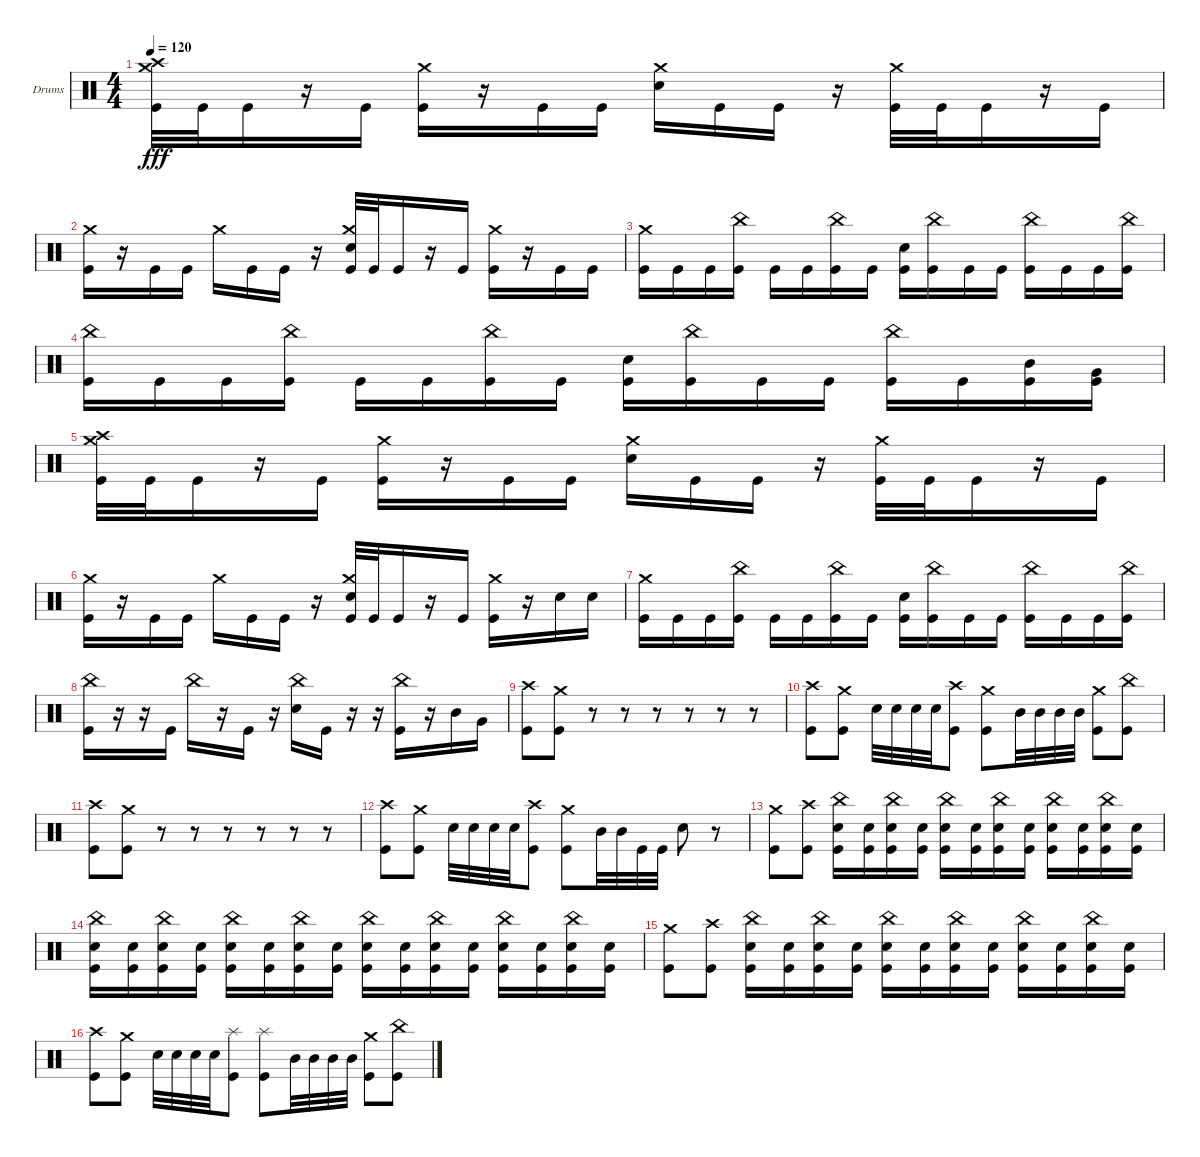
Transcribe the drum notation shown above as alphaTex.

\bracketExtendMode groupsimilarinstruments
\firstSystemTrackNameOrientation horizontal
\otherSystemsTrackNameOrientation horizontal
\track ("Drumkit" "Drums") {instrument percussion}
\staff {score}
\articulation defaults
\ts (4 4)
\tempo 120
\clef neutral
\ks c
("Kick (hit)" "Crash high (hit)" "Crash medium (hit)").32{dy fff} "Kick (hit)".32 "Kick (hit)".16 r.16 "Kick (hit)".16 ("Kick (hit)" "Crash medium (hit)").16 r.16 "Kick (hit)".16 "Kick (hit)".16 ("Snare (hit) 2" "Crash medium (hit)").16 "Kick (hit)".16 "Kick (hit)".16 r.16 ("Kick (hit)" "Crash medium (hit)").32 "Kick (hit)".32 "Kick (hit)".16 r.16 "Kick (hit)".16 |
("Kick (hit)" "Crash medium (hit)").16 r.16 "Kick (hit)".16 "Kick (hit)".16 "Crash medium (hit)".16 "Kick (hit)".16 "Kick (hit)".16 r.16 ("Snare (hit) 2" "Kick (hit)" "Crash medium (hit)").32 "Kick (hit)".32 "Kick (hit)".16 r.16 "Kick (hit)".16 ("Kick (hit)" "Crash medium (hit)").16 r.16 "Kick (hit)".16 "Kick (hit)".16 |
("Kick (hit)" "Crash medium (hit)").16 "Kick (hit)".16 "Kick (hit)".16 ("Kick (hit)" "China (hit)").16 "Kick (hit)".16 "Kick (hit)".16 ("Kick (hit)" "China (hit)").16 "Kick (hit)".16 ("Snare (hit) 2" "Kick (hit)").16 ("Kick (hit)" "China (hit)").16 "Kick (hit)".16 "Kick (hit)".16 ("Kick (hit)" "China (hit)").16 "Kick (hit)".16 "Kick (hit)".16 ("China (hit)" "Kick (hit)").16 |
("Kick (hit)" "China (hit)").16 "Kick (hit)".16 "Kick (hit)".16 ("Kick (hit)" "China (hit)").16 "Kick (hit)".16 "Kick (hit)".16 ("Kick (hit)" "China (hit)").16 "Kick (hit)".16 ("Snare (hit) 2" "Kick (hit)").16 ("Kick (hit)" "China (hit)").16 "Kick (hit)".16 "Kick (hit)".16 ("Kick (hit)" "China (hit)").16 "Kick (hit)".16 ("Mid Tom (hit)" "Kick (hit)").16 ("Very Low Tom (hit)" "Kick (hit)").16 |
("Kick (hit)" "Crash high (hit)" "Crash medium (hit)").32 "Kick (hit)".32 "Kick (hit)".16 r.16 "Kick (hit)".16 ("Kick (hit)" "Crash medium (hit)").16 r.16 "Kick (hit)".16 "Kick (hit)".16 ("Snare (hit) 2" "Crash medium (hit)").16 "Kick (hit)".16 "Kick (hit)".16 r.16 ("Kick (hit)" "Crash medium (hit)").32 "Kick (hit)".32 "Kick (hit)".16 r.16 "Kick (hit)".16 |
("Kick (hit)" "Crash medium (hit)").16 r.16 "Kick (hit)".16 "Kick (hit)".16 "Crash medium (hit)".16 "Kick (hit)".16 "Kick (hit)".16 r.16 ("Snare (hit) 2" "Kick (hit)" "Crash medium (hit)").32 "Kick (hit)".32 "Kick (hit)".16 r.16 "Kick (hit)".16 ("Kick (hit)" "Crash medium (hit)").16 r.16 "Snare (hit) 2".16 "Snare (hit) 2".16 |
("Kick (hit)" "Crash medium (hit)").16 "Kick (hit)".16 "Kick (hit)".16 ("Kick (hit)" "China (hit)").16 "Kick (hit)".16 "Kick (hit)".16 ("Kick (hit)" "China (hit)").16 "Kick (hit)".16 ("Snare (hit) 2" "Kick (hit)").16 ("Kick (hit)" "China (hit)").16 "Kick (hit)".16 "Kick (hit)".16 ("Kick (hit)" "China (hit)").16 "Kick (hit)".16 "Kick (hit)".16 ("China (hit)" "Kick (hit)").16 |
("Kick (hit)" "China (hit)").16 r.16 r.16 "Kick (hit)".16 "China (hit)".16 r.16 "Kick (hit)".16 r.16 ("Snare (hit) 2" "China (hit)").16 "Kick (hit)".16 r.16 r.16 ("Kick (hit)" "China (hit)").16 r.16 "Mid Tom (hit)".16 "Very Low Tom (hit)".16 |
("Kick (hit)" "Crash high (hit)").8 ("Kick (hit)" "Crash medium (hit)").8 r.8 r.8 r.8 r.8 r.8 r.8 |
("Kick (hit)" "Crash high (hit)").8 ("Kick (hit)" "Crash medium (hit)").8 "Snare (hit) 2".32 "Snare (hit) 2".32 "Snare (hit) 2".32 "Snare (hit) 2".32 ("Kick (hit)" "Crash high (hit)").8 ("Kick (hit)" "Crash medium (hit)").8 "Mid Tom (hit)".32 "Mid Tom (hit)".32 "Mid Tom (hit)".32 "Mid Tom (hit)".32 ("Kick (hit)" "Crash medium (hit)").8 ("Kick (hit)" "China (hit)").8 |
("Kick (hit)" "Crash high (hit)").8 ("Kick (hit)" "Crash medium (hit)").8 r.8 r.8 r.8 r.8 r.8 r.8 |
("Kick (hit)" "Crash high (hit)").8 ("Kick (hit)" "Crash medium (hit)").8 "Snare (hit) 2".32 "Snare (hit) 2".32 "Snare (hit) 2".32 "Snare (hit) 2".32 ("Kick (hit)" "Crash high (hit)").8 ("Kick (hit)" "Crash medium (hit)").8 "Mid Tom (hit)".32 "Mid Tom (hit)".32 "Kick (hit)".32 "Kick (hit)".32 "Snare (hit) 2".8 r.8 |
("Kick (hit)" "Crash medium (hit)").8 ("Crash high (hit)" "Kick (hit)").8 ("Snare (hit) 2" "China (hit)" "Kick (hit)").16 ("Snare (hit) 2" "Kick (hit)").16 ("Snare (hit) 2" "China (hit)" "Kick (hit)").16 ("Snare (hit) 2" "Kick (hit)").16 ("Snare (hit) 2" "China (hit)" "Kick (hit)").16 ("Snare (hit) 2" "Kick (hit)").16 ("Snare (hit) 2" "China (hit)" "Kick (hit)").16 ("Snare (hit) 2" "Kick (hit)").16 ("Snare (hit) 2" "China (hit)" "Kick (hit)").16 ("Snare (hit) 2" "Kick (hit)").16 ("Snare (hit) 2" "China (hit)" "Kick (hit)").16 ("Snare (hit) 2" "Kick (hit)").16 |
("Snare (hit) 2" "China (hit)" "Kick (hit)").16 ("Snare (hit) 2" "Kick (hit)").16 ("Snare (hit) 2" "China (hit)" "Kick (hit)").16 ("Snare (hit) 2" "Kick (hit)").16 ("Snare (hit) 2" "China (hit)" "Kick (hit)").16 ("Snare (hit) 2" "Kick (hit)").16 ("Snare (hit) 2" "China (hit)" "Kick (hit)").16 ("Snare (hit) 2" "Kick (hit)").16 ("Snare (hit) 2" "China (hit)" "Kick (hit)").16 ("Snare (hit) 2" "Kick (hit)").16 ("Snare (hit) 2" "China (hit)" "Kick (hit)").16 ("Snare (hit) 2" "Kick (hit)").16 ("Snare (hit) 2" "China (hit)" "Kick (hit)").16 ("Snare (hit) 2" "Kick (hit)").16 ("Snare (hit) 2" "China (hit)" "Kick (hit)").16 ("Snare (hit) 2" "Kick (hit)").16 |
("Kick (hit)" "Crash medium (hit)").8 ("Crash high (hit)" "Kick (hit)").8 ("Snare (hit) 2" "China (hit)" "Kick (hit)").16 ("Snare (hit) 2" "Kick (hit)").16 ("Snare (hit) 2" "China (hit)" "Kick (hit)").16 ("Snare (hit) 2" "Kick (hit)").16 ("Snare (hit) 2" "China (hit)" "Kick (hit)").16 ("Snare (hit) 2" "Kick (hit)").16 ("Snare (hit) 2" "China (hit)" "Kick (hit)").16 ("Snare (hit) 2" "Kick (hit)").16 ("Snare (hit) 2" "China (hit)" "Kick (hit)").16 ("Snare (hit) 2" "Kick (hit)").16 ("Snare (hit) 2" "China (hit)" "Kick (hit)").16 ("Snare (hit) 2" "Kick (hit)").16 |
("Kick (hit)" "Crash high (hit)").8 ("Kick (hit)" "Crash medium (hit)").8 "Snare (hit) 2".32 "Snare (hit) 2".32 "Snare (hit) 2".32 "Snare (hit) 2".32 ("Kick (hit)" "Splash (hit)").8 ("Kick (hit)" "Splash (hit)").8 "Mid Tom (hit)".32 "Mid Tom (hit)".32 "Mid Tom (hit)".32 "Mid Tom (hit)".32 ("Kick (hit)" "Crash medium (hit)").8 ("Kick (hit)" "China (hit)").8
